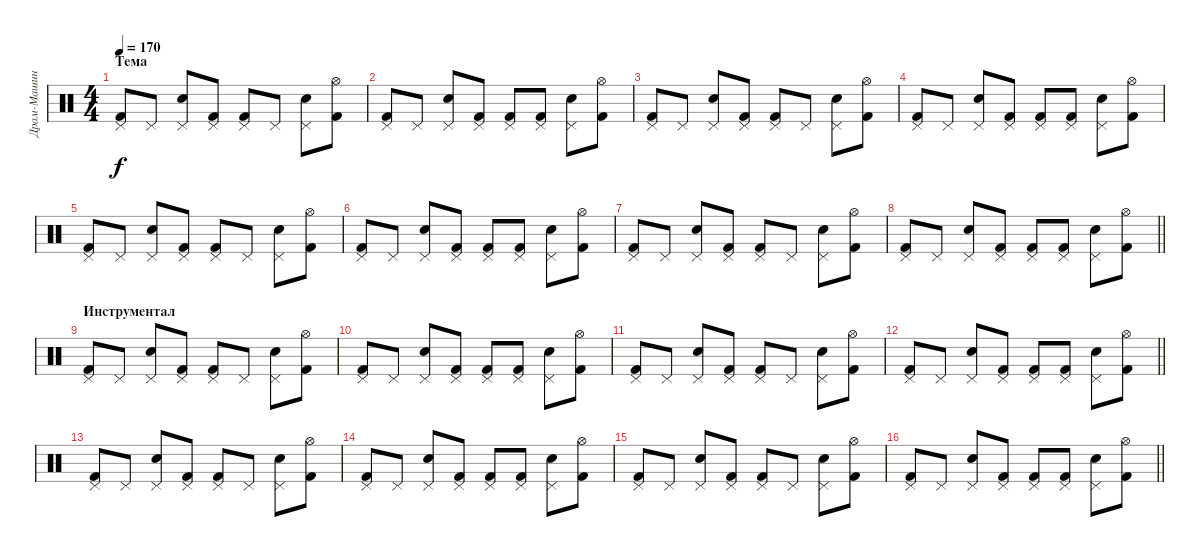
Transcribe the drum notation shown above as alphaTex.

\track ("Драм-Машина" "Драм-Машин") {instrument percussion}
\staff {score}
\articulation defaults
\ts (4 4)
\section ("" "Тема")
\tempo 170
\clef neutral
\ks c
("Pedal Hi-Hat (hit)" "Kick (hit) 2").8{dy f} "Pedal Hi-Hat (hit)".8 ("Pedal Hi-Hat (hit)" "Electric Snare (hit)").8 ("Pedal Hi-Hat (hit)" "Kick (hit) 2").8 ("Pedal Hi-Hat (hit)" "Kick (hit) 2").8 "Pedal Hi-Hat (hit)".8 ("Pedal Hi-Hat (hit)" "Electric Snare (hit)").8 ("Hi-Hat (open)" "Kick (hit) 2").8 |
("Pedal Hi-Hat (hit)" "Kick (hit) 2").8 "Pedal Hi-Hat (hit)".8 ("Pedal Hi-Hat (hit)" "Electric Snare (hit)").8 ("Pedal Hi-Hat (hit)" "Kick (hit) 2").8 ("Pedal Hi-Hat (hit)" "Kick (hit) 2").8 ("Pedal Hi-Hat (hit)" "Kick (hit) 2").8 ("Pedal Hi-Hat (hit)" "Electric Snare (hit)").8 ("Hi-Hat (open)" "Kick (hit) 2").8 |
("Pedal Hi-Hat (hit)" "Kick (hit) 2").8 "Pedal Hi-Hat (hit)".8 ("Pedal Hi-Hat (hit)" "Electric Snare (hit)").8 ("Pedal Hi-Hat (hit)" "Kick (hit) 2").8 ("Pedal Hi-Hat (hit)" "Kick (hit) 2").8 "Pedal Hi-Hat (hit)".8 ("Pedal Hi-Hat (hit)" "Electric Snare (hit)").8 ("Hi-Hat (open)" "Kick (hit) 2").8 |
("Pedal Hi-Hat (hit)" "Kick (hit) 2").8 "Pedal Hi-Hat (hit)".8 ("Pedal Hi-Hat (hit)" "Electric Snare (hit)").8 ("Pedal Hi-Hat (hit)" "Kick (hit) 2").8 ("Pedal Hi-Hat (hit)" "Kick (hit) 2").8 ("Pedal Hi-Hat (hit)" "Kick (hit) 2").8 ("Pedal Hi-Hat (hit)" "Electric Snare (hit)").8 ("Hi-Hat (open)" "Kick (hit) 2").8 |
("Pedal Hi-Hat (hit)" "Kick (hit) 2").8 "Pedal Hi-Hat (hit)".8 ("Pedal Hi-Hat (hit)" "Electric Snare (hit)").8 ("Pedal Hi-Hat (hit)" "Kick (hit) 2").8 ("Pedal Hi-Hat (hit)" "Kick (hit) 2").8 "Pedal Hi-Hat (hit)".8 ("Pedal Hi-Hat (hit)" "Electric Snare (hit)").8 ("Hi-Hat (open)" "Kick (hit) 2").8 |
("Pedal Hi-Hat (hit)" "Kick (hit) 2").8 "Pedal Hi-Hat (hit)".8 ("Pedal Hi-Hat (hit)" "Electric Snare (hit)").8 ("Pedal Hi-Hat (hit)" "Kick (hit) 2").8 ("Pedal Hi-Hat (hit)" "Kick (hit) 2").8 ("Pedal Hi-Hat (hit)" "Kick (hit) 2").8 ("Pedal Hi-Hat (hit)" "Electric Snare (hit)").8 ("Hi-Hat (open)" "Kick (hit) 2").8 |
("Pedal Hi-Hat (hit)" "Kick (hit) 2").8 "Pedal Hi-Hat (hit)".8 ("Pedal Hi-Hat (hit)" "Electric Snare (hit)").8 ("Pedal Hi-Hat (hit)" "Kick (hit) 2").8 ("Pedal Hi-Hat (hit)" "Kick (hit) 2").8 "Pedal Hi-Hat (hit)".8 ("Pedal Hi-Hat (hit)" "Electric Snare (hit)").8 ("Hi-Hat (open)" "Kick (hit) 2").8 |
\barLineRight lightlight
("Pedal Hi-Hat (hit)" "Kick (hit) 2").8 "Pedal Hi-Hat (hit)".8 ("Pedal Hi-Hat (hit)" "Electric Snare (hit)").8 ("Pedal Hi-Hat (hit)" "Kick (hit) 2").8 ("Pedal Hi-Hat (hit)" "Kick (hit) 2").8 ("Pedal Hi-Hat (hit)" "Kick (hit) 2").8 ("Pedal Hi-Hat (hit)" "Electric Snare (hit)").8 ("Hi-Hat (open)" "Kick (hit) 2").8 |
\section ("" "Инструментал")
("Pedal Hi-Hat (hit)" "Kick (hit) 2").8 "Pedal Hi-Hat (hit)".8 ("Pedal Hi-Hat (hit)" "Electric Snare (hit)").8 ("Pedal Hi-Hat (hit)" "Kick (hit) 2").8 ("Pedal Hi-Hat (hit)" "Kick (hit) 2").8 "Pedal Hi-Hat (hit)".8 ("Pedal Hi-Hat (hit)" "Electric Snare (hit)").8 ("Hi-Hat (open)" "Kick (hit) 2").8 |
("Pedal Hi-Hat (hit)" "Kick (hit) 2").8 "Pedal Hi-Hat (hit)".8 ("Pedal Hi-Hat (hit)" "Electric Snare (hit)").8 ("Pedal Hi-Hat (hit)" "Kick (hit) 2").8 ("Pedal Hi-Hat (hit)" "Kick (hit) 2").8 ("Pedal Hi-Hat (hit)" "Kick (hit) 2").8 ("Pedal Hi-Hat (hit)" "Electric Snare (hit)").8 ("Hi-Hat (open)" "Kick (hit) 2").8 |
("Pedal Hi-Hat (hit)" "Kick (hit) 2").8 "Pedal Hi-Hat (hit)".8 ("Pedal Hi-Hat (hit)" "Electric Snare (hit)").8 ("Pedal Hi-Hat (hit)" "Kick (hit) 2").8 ("Pedal Hi-Hat (hit)" "Kick (hit) 2").8 "Pedal Hi-Hat (hit)".8 ("Pedal Hi-Hat (hit)" "Electric Snare (hit)").8 ("Hi-Hat (open)" "Kick (hit) 2").8 |
\barLineRight lightlight
("Pedal Hi-Hat (hit)" "Kick (hit) 2").8 "Pedal Hi-Hat (hit)".8 ("Pedal Hi-Hat (hit)" "Electric Snare (hit)").8 ("Pedal Hi-Hat (hit)" "Kick (hit) 2").8 ("Pedal Hi-Hat (hit)" "Kick (hit) 2").8 ("Pedal Hi-Hat (hit)" "Kick (hit) 2").8 ("Pedal Hi-Hat (hit)" "Electric Snare (hit)").8 ("Hi-Hat (open)" "Kick (hit) 2").8 |
("Pedal Hi-Hat (hit)" "Kick (hit) 2").8 "Pedal Hi-Hat (hit)".8 ("Pedal Hi-Hat (hit)" "Electric Snare (hit)").8 ("Pedal Hi-Hat (hit)" "Kick (hit) 2").8 ("Pedal Hi-Hat (hit)" "Kick (hit) 2").8 "Pedal Hi-Hat (hit)".8 ("Pedal Hi-Hat (hit)" "Electric Snare (hit)").8 ("Hi-Hat (open)" "Kick (hit) 2").8 |
("Pedal Hi-Hat (hit)" "Kick (hit) 2").8 "Pedal Hi-Hat (hit)".8 ("Pedal Hi-Hat (hit)" "Electric Snare (hit)").8 ("Pedal Hi-Hat (hit)" "Kick (hit) 2").8 ("Pedal Hi-Hat (hit)" "Kick (hit) 2").8 ("Pedal Hi-Hat (hit)" "Kick (hit) 2").8 ("Pedal Hi-Hat (hit)" "Electric Snare (hit)").8 ("Hi-Hat (open)" "Kick (hit) 2").8 |
("Pedal Hi-Hat (hit)" "Kick (hit) 2").8 "Pedal Hi-Hat (hit)".8 ("Pedal Hi-Hat (hit)" "Electric Snare (hit)").8 ("Pedal Hi-Hat (hit)" "Kick (hit) 2").8 ("Pedal Hi-Hat (hit)" "Kick (hit) 2").8 "Pedal Hi-Hat (hit)".8 ("Pedal Hi-Hat (hit)" "Electric Snare (hit)").8 ("Hi-Hat (open)" "Kick (hit) 2").8 |
\barLineRight lightlight
("Pedal Hi-Hat (hit)" "Kick (hit) 2").8 "Pedal Hi-Hat (hit)".8 ("Pedal Hi-Hat (hit)" "Electric Snare (hit)").8 ("Pedal Hi-Hat (hit)" "Kick (hit) 2").8 ("Pedal Hi-Hat (hit)" "Kick (hit) 2").8 ("Pedal Hi-Hat (hit)" "Kick (hit) 2").8 ("Pedal Hi-Hat (hit)" "Electric Snare (hit)").8 ("Hi-Hat (open)" "Kick (hit) 2").8
